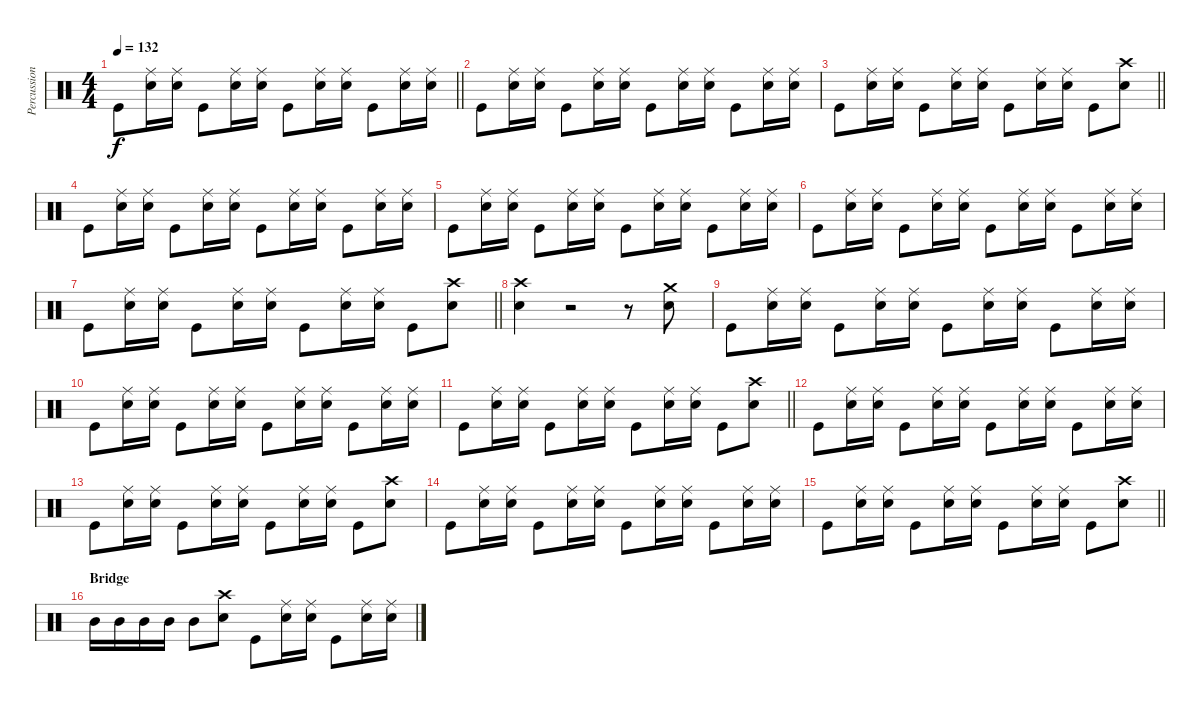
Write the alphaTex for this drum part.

\track ("Percussion" "Percussion") {instrument percussion}
\staff {score}
\articulation defaults
\ts (4 4)
\tempo 132
\clef neutral
\barLineRight lightlight
\ks c "Kick (hit)".8{dy f}
("Ride (middle)" "Snare (hit) 2").16 ("Ride (middle)" "Snare (hit) 2").16 "Kick (hit)".8 ("Ride (middle)" "Snare (hit) 2").16 ("Ride (middle)" "Snare (hit) 2").16 "Kick (hit)".8 ("Ride (middle)" "Snare (hit) 2").16 ("Ride (middle)" "Snare (hit) 2").16 "Kick (hit)".8 ("Ride (middle)" "Snare (hit) 2").16 ("Ride (middle)" "Snare (hit) 2").16 |
"Kick (hit)".8 ("Ride (middle)" "Snare (hit) 2").16 ("Ride (middle)" "Snare (hit) 2").16 "Kick (hit)".8 ("Ride (middle)" "Snare (hit) 2").16 ("Ride (middle)" "Snare (hit) 2").16 "Kick (hit)".8 ("Ride (middle)" "Snare (hit) 2").16 ("Ride (middle)" "Snare (hit) 2").16 "Kick (hit)".8 ("Ride (middle)" "Snare (hit) 2").16 ("Ride (middle)" "Snare (hit) 2").16 |
\barLineRight lightlight "Kick (hit)".8
("Ride (middle)" "Snare (hit) 2").16 ("Ride (middle)" "Snare (hit) 2").16 "Kick (hit)".8 ("Ride (middle)" "Snare (hit) 2").16 ("Ride (middle)" "Snare (hit) 2").16 "Kick (hit)".8 ("Ride (middle)" "Snare (hit) 2").16 ("Ride (middle)" "Snare (hit) 2").16 "Kick (hit)".8 ("Crash high (hit)" "Snare (hit) 2").8 |
"Kick (hit)".8 ("Ride (middle)" "Snare (hit) 2").16 ("Ride (middle)" "Snare (hit) 2").16 "Kick (hit)".8 ("Ride (middle)" "Snare (hit) 2").16 ("Ride (middle)" "Snare (hit) 2").16 "Kick (hit)".8 ("Ride (middle)" "Snare (hit) 2").16 ("Ride (middle)" "Snare (hit) 2").16 "Kick (hit)".8 ("Ride (middle)" "Snare (hit) 2").16 ("Ride (middle)" "Snare (hit) 2").16 |
"Kick (hit)".8 ("Ride (middle)" "Snare (hit) 2").16 ("Ride (middle)" "Snare (hit) 2").16 "Kick (hit)".8 ("Ride (middle)" "Snare (hit) 2").16 ("Ride (middle)" "Snare (hit) 2").16 "Kick (hit)".8 ("Ride (middle)" "Snare (hit) 2").16 ("Ride (middle)" "Snare (hit) 2").16 "Kick (hit)".8 ("Ride (middle)" "Snare (hit) 2").16 ("Ride (middle)" "Snare (hit) 2").16 |
"Kick (hit)".8 ("Ride (middle)" "Snare (hit) 2").16 ("Ride (middle)" "Snare (hit) 2").16 "Kick (hit)".8 ("Ride (middle)" "Snare (hit) 2").16 ("Ride (middle)" "Snare (hit) 2").16 "Kick (hit)".8 ("Ride (middle)" "Snare (hit) 2").16 ("Ride (middle)" "Snare (hit) 2").16 "Kick (hit)".8 ("Ride (middle)" "Snare (hit) 2").16 ("Ride (middle)" "Snare (hit) 2").16 |
\barLineRight lightlight "Kick (hit)".8
("Ride (middle)" "Snare (hit) 2").16 ("Ride (middle)" "Snare (hit) 2").16 "Kick (hit)".8 ("Ride (middle)" "Snare (hit) 2").16 ("Ride (middle)" "Snare (hit) 2").16 "Kick (hit)".8 ("Ride (middle)" "Snare (hit) 2").16 ("Ride (middle)" "Snare (hit) 2").16 "Kick (hit)".8 ("Crash high (hit)" "Snare (hit) 2").8 |
("Crash high (hit)" "Snare (hit) 2").4 r.2 r.8 ("Crash medium (hit)" "Snare (hit) 2").8 |
"Kick (hit)".8 ("Ride (middle)" "Snare (hit) 2").16 ("Ride (middle)" "Snare (hit) 2").16 "Kick (hit)".8 ("Ride (middle)" "Snare (hit) 2").16 ("Ride (middle)" "Snare (hit) 2").16 "Kick (hit)".8 ("Ride (middle)" "Snare (hit) 2").16 ("Ride (middle)" "Snare (hit) 2").16 "Kick (hit)".8 ("Ride (middle)" "Snare (hit) 2").16 ("Ride (middle)" "Snare (hit) 2").16 |
"Kick (hit)".8 ("Ride (middle)" "Snare (hit) 2").16 ("Ride (middle)" "Snare (hit) 2").16 "Kick (hit)".8 ("Ride (middle)" "Snare (hit) 2").16 ("Ride (middle)" "Snare (hit) 2").16 "Kick (hit)".8 ("Ride (middle)" "Snare (hit) 2").16 ("Ride (middle)" "Snare (hit) 2").16 "Kick (hit)".8 ("Ride (middle)" "Snare (hit) 2").16 ("Ride (middle)" "Snare (hit) 2").16 |
\barLineRight lightlight "Kick (hit)".8
("Ride (middle)" "Snare (hit) 2").16 ("Ride (middle)" "Snare (hit) 2").16 "Kick (hit)".8 ("Ride (middle)" "Snare (hit) 2").16 ("Ride (middle)" "Snare (hit) 2").16 "Kick (hit)".8 ("Ride (middle)" "Snare (hit) 2").16 ("Ride (middle)" "Snare (hit) 2").16 "Kick (hit)".8 ("Crash high (hit)" "Snare (hit) 2").8 |
"Kick (hit)".8 ("Ride (middle)" "Snare (hit) 2").16 ("Ride (middle)" "Snare (hit) 2").16 "Kick (hit)".8 ("Ride (middle)" "Snare (hit) 2").16 ("Ride (middle)" "Snare (hit) 2").16 "Kick (hit)".8 ("Ride (middle)" "Snare (hit) 2").16 ("Ride (middle)" "Snare (hit) 2").16 "Kick (hit)".8 ("Ride (middle)" "Snare (hit) 2").16 ("Ride (middle)" "Snare (hit) 2").16 |
"Kick (hit)".8 ("Ride (middle)" "Snare (hit) 2").16 ("Ride (middle)" "Snare (hit) 2").16 "Kick (hit)".8 ("Ride (middle)" "Snare (hit) 2").16 ("Ride (middle)" "Snare (hit) 2").16 "Kick (hit)".8 ("Ride (middle)" "Snare (hit) 2").16 ("Ride (middle)" "Snare (hit) 2").16 "Kick (hit)".8 ("Crash high (hit)" "Snare (hit) 2").8 |
"Kick (hit)".8 ("Ride (middle)" "Snare (hit) 2").16 ("Ride (middle)" "Snare (hit) 2").16 "Kick (hit)".8 ("Ride (middle)" "Snare (hit) 2").16 ("Ride (middle)" "Snare (hit) 2").16 "Kick (hit)".8 ("Ride (middle)" "Snare (hit) 2").16 ("Ride (middle)" "Snare (hit) 2").16 "Kick (hit)".8 ("Ride (middle)" "Snare (hit) 2").16 ("Ride (middle)" "Snare (hit) 2").16 |
\barLineRight lightlight "Kick (hit)".8
("Ride (middle)" "Snare (hit) 2").16 ("Ride (middle)" "Snare (hit) 2").16 "Kick (hit)".8 ("Ride (middle)" "Snare (hit) 2").16 ("Ride (middle)" "Snare (hit) 2").16 "Kick (hit)".8 ("Ride (middle)" "Snare (hit) 2").16 ("Ride (middle)" "Snare (hit) 2").16 "Kick (hit)".8 ("Crash high (hit)" "Snare (hit) 2").8 |
\section ("" "Bridge")
"Mid Tom (hit)".16 "Mid Tom (hit)".16 "Mid Tom (hit)".16 "Mid Tom (hit)".16 "Mid Tom (hit)".8 ("Crash high (hit)" "Snare (hit) 2").8 "Kick (hit)".8 ("Ride (middle)" "Snare (hit) 2").16 ("Ride (middle)" "Snare (hit) 2").16 "Kick (hit)".8 ("Ride (middle)" "Snare (hit) 2").16 ("Ride (middle)" "Snare (hit) 2").16
